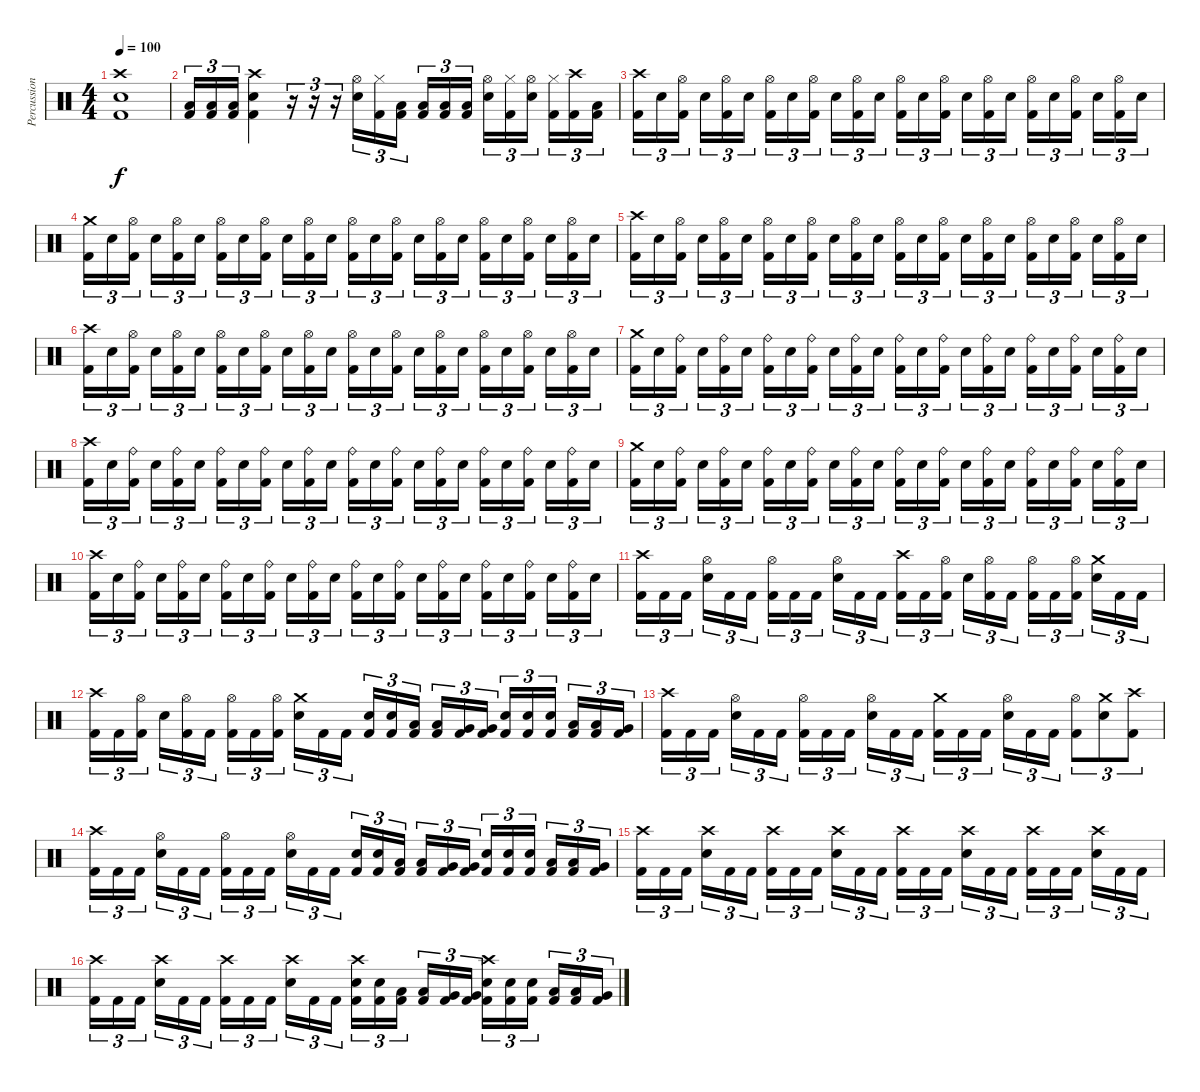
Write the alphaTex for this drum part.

\track ("Percussion" "Percussion") {instrument percussion}
\staff {score}
\articulation defaults
\ts (4 4)
\tempo 100
\clef neutral
\ks c
("Crash high (hit)" "Electric Snare (hit)" "Kick (hit) 2").1{dy f} |
("Low Tom (hit)" "Kick (hit) 2").16{tu (3 2)} ("Low Tom (hit)" "Kick (hit) 2").16{tu (3 2)} ("Low Tom (hit)" "Kick (hit) 2").16{tu (3 2)} ("Crash high (hit)" "Electric Snare (hit)" "Kick (hit) 2").4 r.16{tu (3 2)} r.16{tu (3 2)} r.16{tu (3 2)} ("Hi-Hat (open)" "Electric Snare (hit)").16{tu (3 2)} ("Hi-Hat (closed)" "Kick (hit) 2").16{tu (3 2)} ("Low Tom (hit)" "Kick (hit) 2").16{tu (3 2)} ("Low Tom (hit)" "Kick (hit) 2").16{tu (3 2)} ("Low Tom (hit)" "Kick (hit) 2").16{tu (3 2)} ("Low Tom (hit)" "Kick (hit) 2").16{tu (3 2)} ("Hi-Hat (open)" "Electric Snare (hit)").16{tu (3 2)} ("Hi-Hat (closed)" "Kick (hit) 2").16{tu (3 2)} ("Hi-Hat (open)" "Electric Snare (hit)").16{tu (3 2)} ("Hi-Hat (closed)" "Kick (hit) 2").16{tu (3 2)} ("Crash high (hit)" "Kick (hit) 2").16{tu (3 2)} ("Low Tom (hit)" "Kick (hit) 2").16{tu (3 2)} |
("Crash high (hit)" "Kick (hit) 2").16{tu (3 2)} "Electric Snare (hit)".16{tu (3 2)} ("Hi-Hat (open)" "Kick (hit) 2").16{tu (3 2)} "Electric Snare (hit)".16{tu (3 2)} ("Hi-Hat (open)" "Kick (hit) 2").16{tu (3 2)} "Electric Snare (hit)".16{tu (3 2)} ("Hi-Hat (open)" "Kick (hit) 2").16{tu (3 2)} "Electric Snare (hit)".16{tu (3 2)} ("Hi-Hat (open)" "Kick (hit) 2").16{tu (3 2)} "Electric Snare (hit)".16{tu (3 2)} ("Hi-Hat (open)" "Kick (hit) 2").16{tu (3 2)} "Electric Snare (hit)".16{tu (3 2)} ("Hi-Hat (open)" "Kick (hit) 2").16{tu (3 2)} "Electric Snare (hit)".16{tu (3 2)} ("Hi-Hat (open)" "Kick (hit) 2").16{tu (3 2)} "Electric Snare (hit)".16{tu (3 2)} ("Hi-Hat (open)" "Kick (hit) 2").16{tu (3 2)} "Electric Snare (hit)".16{tu (3 2)} ("Hi-Hat (open)" "Kick (hit) 2").16{tu (3 2)} "Electric Snare (hit)".16{tu (3 2)} ("Hi-Hat (open)" "Kick (hit) 2").16{tu (3 2)} "Electric Snare (hit)".16{tu (3 2)} ("Hi-Hat (open)" "Kick (hit) 2").16{tu (3 2)} "Electric Snare (hit)".16{tu (3 2)} |
("Crash medium (hit)" "Kick (hit) 2").16{tu (3 2)} "Electric Snare (hit)".16{tu (3 2)} ("Hi-Hat (open)" "Kick (hit) 2").16{tu (3 2)} "Electric Snare (hit)".16{tu (3 2)} ("Hi-Hat (open)" "Kick (hit) 2").16{tu (3 2)} "Electric Snare (hit)".16{tu (3 2)} ("Hi-Hat (open)" "Kick (hit) 2").16{tu (3 2)} "Electric Snare (hit)".16{tu (3 2)} ("Hi-Hat (open)" "Kick (hit) 2").16{tu (3 2)} "Electric Snare (hit)".16{tu (3 2)} ("Hi-Hat (open)" "Kick (hit) 2").16{tu (3 2)} "Electric Snare (hit)".16{tu (3 2)} ("Hi-Hat (open)" "Kick (hit) 2").16{tu (3 2)} "Electric Snare (hit)".16{tu (3 2)} ("Hi-Hat (open)" "Kick (hit) 2").16{tu (3 2)} "Electric Snare (hit)".16{tu (3 2)} ("Hi-Hat (open)" "Kick (hit) 2").16{tu (3 2)} "Electric Snare (hit)".16{tu (3 2)} ("Hi-Hat (open)" "Kick (hit) 2").16{tu (3 2)} "Electric Snare (hit)".16{tu (3 2)} ("Hi-Hat (open)" "Kick (hit) 2").16{tu (3 2)} "Electric Snare (hit)".16{tu (3 2)} ("Hi-Hat (open)" "Kick (hit) 2").16{tu (3 2)} "Electric Snare (hit)".16{tu (3 2)} |
("Crash high (hit)" "Kick (hit) 2").16{tu (3 2)} "Electric Snare (hit)".16{tu (3 2)} ("Hi-Hat (open)" "Kick (hit) 2").16{tu (3 2)} "Electric Snare (hit)".16{tu (3 2)} ("Hi-Hat (open)" "Kick (hit) 2").16{tu (3 2)} "Electric Snare (hit)".16{tu (3 2)} ("Hi-Hat (open)" "Kick (hit) 2").16{tu (3 2)} "Electric Snare (hit)".16{tu (3 2)} ("Hi-Hat (open)" "Kick (hit) 2").16{tu (3 2)} "Electric Snare (hit)".16{tu (3 2)} ("Hi-Hat (open)" "Kick (hit) 2").16{tu (3 2)} "Electric Snare (hit)".16{tu (3 2)} ("Hi-Hat (open)" "Kick (hit) 2").16{tu (3 2)} "Electric Snare (hit)".16{tu (3 2)} ("Hi-Hat (open)" "Kick (hit) 2").16{tu (3 2)} "Electric Snare (hit)".16{tu (3 2)} ("Hi-Hat (open)" "Kick (hit) 2").16{tu (3 2)} "Electric Snare (hit)".16{tu (3 2)} ("Hi-Hat (open)" "Kick (hit) 2").16{tu (3 2)} "Electric Snare (hit)".16{tu (3 2)} ("Hi-Hat (open)" "Kick (hit) 2").16{tu (3 2)} "Electric Snare (hit)".16{tu (3 2)} ("Hi-Hat (open)" "Kick (hit) 2").16{tu (3 2)} "Electric Snare (hit)".16{tu (3 2)} |
("Crash high (hit)" "Kick (hit) 2").16{tu (3 2)} "Electric Snare (hit)".16{tu (3 2)} ("Hi-Hat (open)" "Kick (hit) 2").16{tu (3 2)} "Electric Snare (hit)".16{tu (3 2)} ("Hi-Hat (open)" "Kick (hit) 2").16{tu (3 2)} "Electric Snare (hit)".16{tu (3 2)} ("Hi-Hat (open)" "Kick (hit) 2").16{tu (3 2)} "Electric Snare (hit)".16{tu (3 2)} ("Hi-Hat (open)" "Kick (hit) 2").16{tu (3 2)} "Electric Snare (hit)".16{tu (3 2)} ("Hi-Hat (open)" "Kick (hit) 2").16{tu (3 2)} "Electric Snare (hit)".16{tu (3 2)} ("Hi-Hat (open)" "Kick (hit) 2").16{tu (3 2)} "Electric Snare (hit)".16{tu (3 2)} ("Hi-Hat (open)" "Kick (hit) 2").16{tu (3 2)} "Electric Snare (hit)".16{tu (3 2)} ("Hi-Hat (open)" "Kick (hit) 2").16{tu (3 2)} "Electric Snare (hit)".16{tu (3 2)} ("Hi-Hat (open)" "Kick (hit) 2").16{tu (3 2)} "Electric Snare (hit)".16{tu (3 2)} ("Hi-Hat (open)" "Kick (hit) 2").16{tu (3 2)} "Electric Snare (hit)".16{tu (3 2)} ("Hi-Hat (open)" "Kick (hit) 2").16{tu (3 2)} "Electric Snare (hit)".16{tu (3 2)} |
("Crash medium (hit)" "Kick (hit) 2").16{tu (3 2)} "Electric Snare (hit)".16{tu (3 2)} ("Ride (bell)" "Kick (hit) 2").16{tu (3 2)} "Electric Snare (hit)".16{tu (3 2)} ("Ride (bell)" "Kick (hit) 2").16{tu (3 2)} "Electric Snare (hit)".16{tu (3 2)} ("Ride (bell)" "Kick (hit) 2").16{tu (3 2)} "Electric Snare (hit)".16{tu (3 2)} ("Ride (bell)" "Kick (hit) 2").16{tu (3 2)} "Electric Snare (hit)".16{tu (3 2)} ("Ride (bell)" "Kick (hit) 2").16{tu (3 2)} "Electric Snare (hit)".16{tu (3 2)} ("Ride (bell)" "Kick (hit) 2").16{tu (3 2)} "Electric Snare (hit)".16{tu (3 2)} ("Ride (bell)" "Kick (hit) 2").16{tu (3 2)} "Electric Snare (hit)".16{tu (3 2)} ("Ride (bell)" "Kick (hit) 2").16{tu (3 2)} "Electric Snare (hit)".16{tu (3 2)} ("Ride (bell)" "Kick (hit) 2").16{tu (3 2)} "Electric Snare (hit)".16{tu (3 2)} ("Ride (bell)" "Kick (hit) 2").16{tu (3 2)} "Electric Snare (hit)".16{tu (3 2)} ("Ride (bell)" "Kick (hit) 2").16{tu (3 2)} "Electric Snare (hit)".16{tu (3 2)} |
("Crash high (hit)" "Kick (hit) 2").16{tu (3 2)} "Electric Snare (hit)".16{tu (3 2)} ("Ride (bell)" "Kick (hit) 2").16{tu (3 2)} "Electric Snare (hit)".16{tu (3 2)} ("Ride (bell)" "Kick (hit) 2").16{tu (3 2)} "Electric Snare (hit)".16{tu (3 2)} ("Ride (bell)" "Kick (hit) 2").16{tu (3 2)} "Electric Snare (hit)".16{tu (3 2)} ("Ride (bell)" "Kick (hit) 2").16{tu (3 2)} "Electric Snare (hit)".16{tu (3 2)} ("Ride (bell)" "Kick (hit) 2").16{tu (3 2)} "Electric Snare (hit)".16{tu (3 2)} ("Ride (bell)" "Kick (hit) 2").16{tu (3 2)} "Electric Snare (hit)".16{tu (3 2)} ("Ride (bell)" "Kick (hit) 2").16{tu (3 2)} "Electric Snare (hit)".16{tu (3 2)} ("Ride (bell)" "Kick (hit) 2").16{tu (3 2)} "Electric Snare (hit)".16{tu (3 2)} ("Ride (bell)" "Kick (hit) 2").16{tu (3 2)} "Electric Snare (hit)".16{tu (3 2)} ("Ride (bell)" "Kick (hit) 2").16{tu (3 2)} "Electric Snare (hit)".16{tu (3 2)} ("Ride (bell)" "Kick (hit) 2").16{tu (3 2)} "Electric Snare (hit)".16{tu (3 2)} |
("Crash medium (hit)" "Kick (hit) 2").16{tu (3 2)} "Electric Snare (hit)".16{tu (3 2)} ("Ride (bell)" "Kick (hit) 2").16{tu (3 2)} "Electric Snare (hit)".16{tu (3 2)} ("Ride (bell)" "Kick (hit) 2").16{tu (3 2)} "Electric Snare (hit)".16{tu (3 2)} ("Ride (bell)" "Kick (hit) 2").16{tu (3 2)} "Electric Snare (hit)".16{tu (3 2)} ("Ride (bell)" "Kick (hit) 2").16{tu (3 2)} "Electric Snare (hit)".16{tu (3 2)} ("Ride (bell)" "Kick (hit) 2").16{tu (3 2)} "Electric Snare (hit)".16{tu (3 2)} ("Ride (bell)" "Kick (hit) 2").16{tu (3 2)} "Electric Snare (hit)".16{tu (3 2)} ("Ride (bell)" "Kick (hit) 2").16{tu (3 2)} "Electric Snare (hit)".16{tu (3 2)} ("Ride (bell)" "Kick (hit) 2").16{tu (3 2)} "Electric Snare (hit)".16{tu (3 2)} ("Ride (bell)" "Kick (hit) 2").16{tu (3 2)} "Electric Snare (hit)".16{tu (3 2)} ("Ride (bell)" "Kick (hit) 2").16{tu (3 2)} "Electric Snare (hit)".16{tu (3 2)} ("Ride (bell)" "Kick (hit) 2").16{tu (3 2)} "Electric Snare (hit)".16{tu (3 2)} |
("Crash high (hit)" "Kick (hit) 2").16{tu (3 2)} "Electric Snare (hit)".16{tu (3 2)} ("Ride (bell)" "Kick (hit) 2").16{tu (3 2)} "Electric Snare (hit)".16{tu (3 2)} ("Ride (bell)" "Kick (hit) 2").16{tu (3 2)} "Electric Snare (hit)".16{tu (3 2)} ("Ride (bell)" "Kick (hit) 2").16{tu (3 2)} "Electric Snare (hit)".16{tu (3 2)} ("Ride (bell)" "Kick (hit) 2").16{tu (3 2)} "Electric Snare (hit)".16{tu (3 2)} ("Ride (bell)" "Kick (hit) 2").16{tu (3 2)} "Electric Snare (hit)".16{tu (3 2)} ("Ride (bell)" "Kick (hit) 2").16{tu (3 2)} "Electric Snare (hit)".16{tu (3 2)} ("Ride (bell)" "Kick (hit) 2").16{tu (3 2)} "Electric Snare (hit)".16{tu (3 2)} ("Ride (bell)" "Kick (hit) 2").16{tu (3 2)} "Electric Snare (hit)".16{tu (3 2)} ("Ride (bell)" "Kick (hit) 2").16{tu (3 2)} "Electric Snare (hit)".16{tu (3 2)} ("Ride (bell)" "Kick (hit) 2").16{tu (3 2)} "Electric Snare (hit)".16{tu (3 2)} ("Ride (bell)" "Kick (hit) 2").16{tu (3 2)} "Electric Snare (hit)".16{tu (3 2)} |
("Crash high (hit)" "Kick (hit) 2").16{tu (3 2)} "Kick (hit) 2".16{tu (3 2)} "Kick (hit) 2".16{tu (3 2)} ("Hi-Hat (open)" "Electric Snare (hit)").16{tu (3 2)} "Kick (hit) 2".16{tu (3 2)} "Kick (hit) 2".16{tu (3 2)} ("Hi-Hat (open)" "Kick (hit) 2").16{tu (3 2)} "Kick (hit) 2".16{tu (3 2)} "Kick (hit) 2".16{tu (3 2)} ("Hi-Hat (open)" "Electric Snare (hit)").16{tu (3 2)} "Kick (hit) 2".16{tu (3 2)} "Kick (hit) 2".16{tu (3 2)} ("Crash high (hit)" "Kick (hit) 2").16{tu (3 2)} "Kick (hit) 2".16{tu (3 2)} ("Hi-Hat (open)" "Kick (hit) 2").16{tu (3 2)} "Electric Snare (hit)".16{tu (3 2)} ("Hi-Hat (open)" "Kick (hit) 2").16{tu (3 2)} "Kick (hit) 2".16{tu (3 2)} ("Hi-Hat (open)" "Kick (hit) 2").16{tu (3 2)} "Kick (hit) 2".16{tu (3 2)} ("Hi-Hat (open)" "Kick (hit) 2").16{tu (3 2)} ("Crash medium (hit)" "Electric Snare (hit)").16{tu (3 2)} "Kick (hit) 2".16{tu (3 2)} "Kick (hit) 2".16{tu (3 2)} |
("Crash high (hit)" "Kick (hit) 2").16{tu (3 2)} "Kick (hit) 2".16{tu (3 2)} ("Hi-Hat (open)" "Kick (hit) 2").16{tu (3 2)} "Electric Snare (hit)".16{tu (3 2)} ("Hi-Hat (open)" "Kick (hit) 2").16{tu (3 2)} "Kick (hit) 2".16{tu (3 2)} ("Hi-Hat (open)" "Kick (hit) 2").16{tu (3 2)} "Kick (hit) 2".16{tu (3 2)} ("Hi-Hat (open)" "Kick (hit) 2").16{tu (3 2)} ("Crash medium (hit)" "Electric Snare (hit)").16{tu (3 2)} "Kick (hit) 2".16{tu (3 2)} "Kick (hit) 2".16{tu (3 2)} ("Electric Snare (hit)" "Kick (hit) 2").16{tu (3 2)} ("Electric Snare (hit)" "Kick (hit) 2").16{tu (3 2)} ("Low Tom (hit)" "Kick (hit) 2").16{tu (3 2)} ("Low Tom (hit)" "Kick (hit) 2").16{tu (3 2)} ("Very Low Tom (hit)" "Kick (hit) 2").16{tu (3 2)} ("Very Low Tom (hit)" "Kick (hit) 2").16{tu (3 2)} ("Electric Snare (hit)" "Kick (hit) 2").16{tu (3 2)} ("Electric Snare (hit)" "Kick (hit) 2").16{tu (3 2)} ("Electric Snare (hit)" "Kick (hit) 2").16{tu (3 2)} ("Low Tom (hit)" "Kick (hit) 2").16{tu (3 2)} ("Low Tom (hit)" "Kick (hit) 2").16{tu (3 2)} ("Very Low Tom (hit)" "Kick (hit) 2").16{tu (3 2)} |
("Crash high (hit)" "Kick (hit) 2").16{tu (3 2)} "Kick (hit) 2".16{tu (3 2)} "Kick (hit) 2".16{tu (3 2)} ("Hi-Hat (open)" "Electric Snare (hit)").16{tu (3 2)} "Kick (hit) 2".16{tu (3 2)} "Kick (hit) 2".16{tu (3 2)} ("Hi-Hat (open)" "Kick (hit) 2").16{tu (3 2)} "Kick (hit) 2".16{tu (3 2)} "Kick (hit) 2".16{tu (3 2)} ("Hi-Hat (open)" "Electric Snare (hit)").16{tu (3 2)} "Kick (hit) 2".16{tu (3 2)} "Kick (hit) 2".16{tu (3 2)} ("Crash medium (hit)" "Kick (hit) 2").16{tu (3 2)} "Kick (hit) 2".16{tu (3 2)} "Kick (hit) 2".16{tu (3 2)} ("Hi-Hat (open)" "Electric Snare (hit)").16{tu (3 2)} "Kick (hit) 2".16{tu (3 2)} "Kick (hit) 2".16{tu (3 2)} ("Hi-Hat (open)" "Kick (hit) 2").8{tu (3 2)} ("Crash medium (hit)" "Electric Snare (hit)").8{tu (3 2)} ("Crash high (hit)" "Kick (hit) 2").8{tu (3 2)} |
("Crash high (hit)" "Kick (hit) 2").16{tu (3 2)} "Kick (hit) 2".16{tu (3 2)} "Kick (hit) 2".16{tu (3 2)} ("Hi-Hat (open)" "Electric Snare (hit)").16{tu (3 2)} "Kick (hit) 2".16{tu (3 2)} "Kick (hit) 2".16{tu (3 2)} ("Hi-Hat (open)" "Kick (hit) 2").16{tu (3 2)} "Kick (hit) 2".16{tu (3 2)} "Kick (hit) 2".16{tu (3 2)} ("Hi-Hat (open)" "Electric Snare (hit)").16{tu (3 2)} "Kick (hit) 2".16{tu (3 2)} "Kick (hit) 2".16{tu (3 2)} ("Electric Snare (hit)" "Kick (hit) 2").16{tu (3 2)} ("Electric Snare (hit)" "Kick (hit) 2").16{tu (3 2)} ("Low Tom (hit)" "Kick (hit) 2").16{tu (3 2)} ("Low Tom (hit)" "Kick (hit) 2").16{tu (3 2)} ("Very Low Tom (hit)" "Kick (hit) 2").16{tu (3 2)} ("Very Low Tom (hit)" "Kick (hit) 2").16{tu (3 2)} ("Electric Snare (hit)" "Kick (hit) 2").16{tu (3 2)} ("Electric Snare (hit)" "Kick (hit) 2").16{tu (3 2)} ("Electric Snare (hit)" "Kick (hit) 2").16{tu (3 2)} ("Low Tom (hit)" "Kick (hit) 2").16{tu (3 2)} ("Low Tom (hit)" "Kick (hit) 2").16{tu (3 2)} ("Very Low Tom (hit)" "Kick (hit) 2").16{tu (3 2)} |
("Crash high (hit)" "Kick (hit) 2").16{tu (3 2)} "Kick (hit) 2".16{tu (3 2)} "Kick (hit) 2".16{tu (3 2)} ("Crash high (hit)" "Electric Snare (hit)").16{tu (3 2)} "Kick (hit) 2".16{tu (3 2)} "Kick (hit) 2".16{tu (3 2)} ("Crash high (hit)" "Kick (hit) 2").16{tu (3 2)} "Kick (hit) 2".16{tu (3 2)} "Kick (hit) 2".16{tu (3 2)} ("Crash high (hit)" "Electric Snare (hit)").16{tu (3 2)} "Kick (hit) 2".16{tu (3 2)} "Kick (hit) 2".16{tu (3 2)} ("Crash high (hit)" "Kick (hit) 2").16{tu (3 2)} "Kick (hit) 2".16{tu (3 2)} "Kick (hit) 2".16{tu (3 2)} ("Crash high (hit)" "Electric Snare (hit)").16{tu (3 2)} "Kick (hit) 2".16{tu (3 2)} "Kick (hit) 2".16{tu (3 2)} ("Crash high (hit)" "Kick (hit) 2").16{tu (3 2)} "Kick (hit) 2".16{tu (3 2)} "Kick (hit) 2".16{tu (3 2)} ("Crash high (hit)" "Electric Snare (hit)").16{tu (3 2)} "Kick (hit) 2".16{tu (3 2)} "Kick (hit) 2".16{tu (3 2)} |
("Crash high (hit)" "Kick (hit) 2").16{tu (3 2)} "Kick (hit) 2".16{tu (3 2)} "Kick (hit) 2".16{tu (3 2)} ("Crash high (hit)" "Electric Snare (hit)").16{tu (3 2)} "Kick (hit) 2".16{tu (3 2)} "Kick (hit) 2".16{tu (3 2)} ("Crash high (hit)" "Kick (hit) 2").16{tu (3 2)} "Kick (hit) 2".16{tu (3 2)} "Kick (hit) 2".16{tu (3 2)} ("Crash high (hit)" "Electric Snare (hit)").16{tu (3 2)} "Kick (hit) 2".16{tu (3 2)} "Kick (hit) 2".16{tu (3 2)} ("Crash high (hit)" "Electric Snare (hit)" "Kick (hit) 2").16{tu (3 2)} ("Electric Snare (hit)" "Kick (hit) 2").16{tu (3 2)} ("Low Tom (hit)" "Kick (hit) 2").16{tu (3 2)} ("Low Tom (hit)" "Kick (hit) 2").16{tu (3 2)} ("Very Low Tom (hit)" "Kick (hit) 2").16{tu (3 2)} ("Very Low Tom (hit)" "Kick (hit) 2").16{tu (3 2)} ("Crash high (hit)" "Electric Snare (hit)" "Kick (hit) 2").16{tu (3 2)} ("Electric Snare (hit)" "Kick (hit) 2").16{tu (3 2)} ("Electric Snare (hit)" "Kick (hit) 2").16{tu (3 2)} ("Low Tom (hit)" "Kick (hit) 2").16{tu (3 2)} ("Low Tom (hit)" "Kick (hit) 2").16{tu (3 2)} ("Very Low Tom (hit)" "Kick (hit) 2").16{tu (3 2)}
